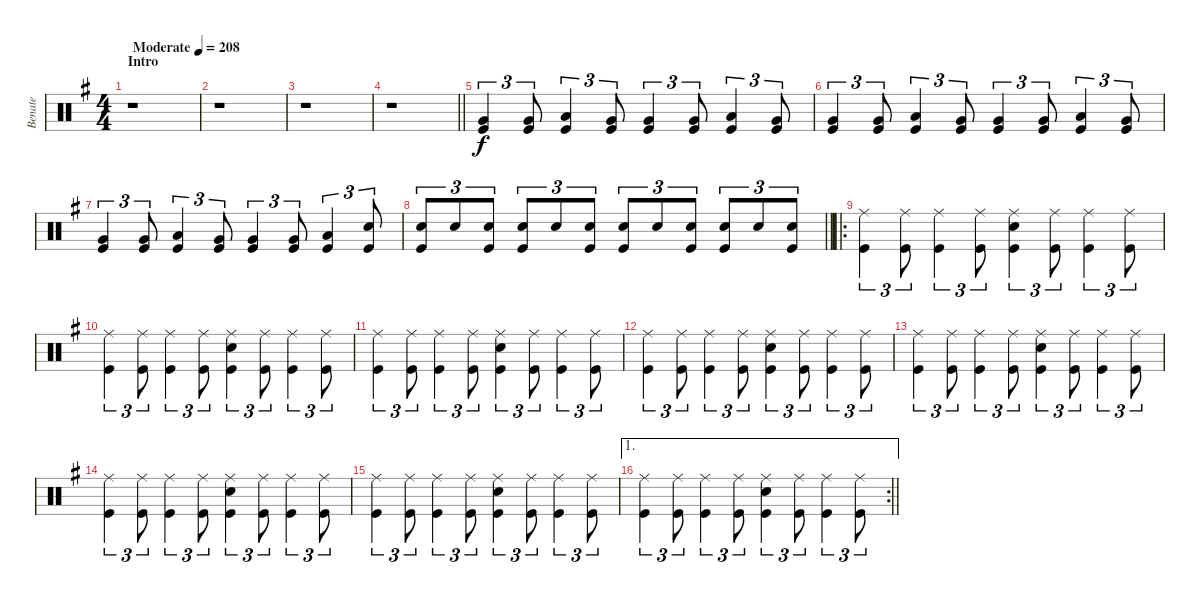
\track ("Benate" "Benate") {instrument percussion}
\staff {score}
\articulation defaults
\ts (4 4)
\section ("" "Intro")
\tempo (208 "Moderate")
\clef neutral
\ks g
r.1{dy f} |
r.1 |
r.1 |
\barLineRight lightlight
r.1 |
("Very Low Tom (hit)" "Kick (hit)").4{tu (3 2)} ("Very Low Tom (hit)" "Kick (hit)").8{tu (3 2)} ("Low Tom (hit)" "Kick (hit)").4{tu (3 2)} ("Very Low Tom (hit)" "Kick (hit)").8{tu (3 2)} ("Very Low Tom (hit)" "Kick (hit)").4{tu (3 2)} ("Very Low Tom (hit)" "Kick (hit)").8{tu (3 2)} ("Low Tom (hit)" "Kick (hit)").4{tu (3 2)} ("Very Low Tom (hit)" "Kick (hit)").8{tu (3 2)} |
("Very Low Tom (hit)" "Kick (hit)").4{tu (3 2)} ("Very Low Tom (hit)" "Kick (hit)").8{tu (3 2)} ("Low Tom (hit)" "Kick (hit)").4{tu (3 2)} ("Very Low Tom (hit)" "Kick (hit)").8{tu (3 2)} ("Very Low Tom (hit)" "Kick (hit)").4{tu (3 2)} ("Very Low Tom (hit)" "Kick (hit)").8{tu (3 2)} ("Low Tom (hit)" "Kick (hit)").4{tu (3 2)} ("Very Low Tom (hit)" "Kick (hit)").8{tu (3 2)} |
("Very Low Tom (hit)" "Kick (hit)").4{tu (3 2)} ("Very Low Tom (hit)" "Kick (hit)").8{tu (3 2)} ("Low Tom (hit)" "Kick (hit)").4{tu (3 2)} ("Very Low Tom (hit)" "Kick (hit)").8{tu (3 2)} ("Very Low Tom (hit)" "Kick (hit)").4{tu (3 2)} ("Very Low Tom (hit)" "Kick (hit)").8{tu (3 2)} ("Low Tom (hit)" "Kick (hit)").4{tu (3 2)} ("Snare (hit) 2" "Kick (hit)").8{tu (3 2)} |
\barLineRight lightlight
("Snare (hit) 2" "Kick (hit)").8{tu (3 2)} "Snare (hit) 2".8{tu (3 2)} ("Snare (hit) 2" "Kick (hit)").8{tu (3 2)} ("Snare (hit) 2" "Kick (hit)").8{tu (3 2)} "Snare (hit) 2".8{tu (3 2)} ("Snare (hit) 2" "Kick (hit)").8{tu (3 2)} ("Snare (hit) 2" "Kick (hit)").8{tu (3 2)} "Snare (hit) 2".8{tu (3 2)} ("Snare (hit) 2" "Kick (hit)").8{tu (3 2)} ("Snare (hit) 2" "Kick (hit)").8{tu (3 2)} "Snare (hit) 2".8{tu (3 2)} ("Snare (hit) 2" "Kick (hit)").8{tu (3 2)} |
\ro
("Ride (middle)" "Kick (hit)").4{tu (3 2)} ("Ride (middle)" "Kick (hit)").8{tu (3 2)} ("Ride (middle)" "Kick (hit)").4{tu (3 2)} ("Ride (middle)" "Kick (hit)").8{tu (3 2)} ("Ride (middle)" "Snare (hit) 2" "Kick (hit)").4{tu (3 2)} ("Ride (middle)" "Kick (hit)").8{tu (3 2)} ("Ride (middle)" "Kick (hit)").4{tu (3 2)} ("Ride (middle)" "Kick (hit)").8{tu (3 2)} |
("Ride (middle)" "Kick (hit)").4{tu (3 2)} ("Ride (middle)" "Kick (hit)").8{tu (3 2)} ("Ride (middle)" "Kick (hit)").4{tu (3 2)} ("Ride (middle)" "Kick (hit)").8{tu (3 2)} ("Ride (middle)" "Snare (hit) 2" "Kick (hit)").4{tu (3 2)} ("Ride (middle)" "Kick (hit)").8{tu (3 2)} ("Ride (middle)" "Kick (hit)").4{tu (3 2)} ("Ride (middle)" "Kick (hit)").8{tu (3 2)} |
("Ride (middle)" "Kick (hit)").4{tu (3 2)} ("Ride (middle)" "Kick (hit)").8{tu (3 2)} ("Ride (middle)" "Kick (hit)").4{tu (3 2)} ("Ride (middle)" "Kick (hit)").8{tu (3 2)} ("Ride (middle)" "Snare (hit) 2" "Kick (hit)").4{tu (3 2)} ("Ride (middle)" "Kick (hit)").8{tu (3 2)} ("Ride (middle)" "Kick (hit)").4{tu (3 2)} ("Ride (middle)" "Kick (hit)").8{tu (3 2)} |
("Ride (middle)" "Kick (hit)").4{tu (3 2)} ("Ride (middle)" "Kick (hit)").8{tu (3 2)} ("Ride (middle)" "Kick (hit)").4{tu (3 2)} ("Ride (middle)" "Kick (hit)").8{tu (3 2)} ("Ride (middle)" "Snare (hit) 2" "Kick (hit)").4{tu (3 2)} ("Ride (middle)" "Kick (hit)").8{tu (3 2)} ("Ride (middle)" "Kick (hit)").4{tu (3 2)} ("Ride (middle)" "Kick (hit)").8{tu (3 2)} |
("Ride (middle)" "Kick (hit)").4{tu (3 2)} ("Ride (middle)" "Kick (hit)").8{tu (3 2)} ("Ride (middle)" "Kick (hit)").4{tu (3 2)} ("Ride (middle)" "Kick (hit)").8{tu (3 2)} ("Ride (middle)" "Snare (hit) 2" "Kick (hit)").4{tu (3 2)} ("Ride (middle)" "Kick (hit)").8{tu (3 2)} ("Ride (middle)" "Kick (hit)").4{tu (3 2)} ("Ride (middle)" "Kick (hit)").8{tu (3 2)} |
("Ride (middle)" "Kick (hit)").4{tu (3 2)} ("Ride (middle)" "Kick (hit)").8{tu (3 2)} ("Ride (middle)" "Kick (hit)").4{tu (3 2)} ("Ride (middle)" "Kick (hit)").8{tu (3 2)} ("Ride (middle)" "Snare (hit) 2" "Kick (hit)").4{tu (3 2)} ("Ride (middle)" "Kick (hit)").8{tu (3 2)} ("Ride (middle)" "Kick (hit)").4{tu (3 2)} ("Ride (middle)" "Kick (hit)").8{tu (3 2)} |
("Ride (middle)" "Kick (hit)").4{tu (3 2)} ("Ride (middle)" "Kick (hit)").8{tu (3 2)} ("Ride (middle)" "Kick (hit)").4{tu (3 2)} ("Ride (middle)" "Kick (hit)").8{tu (3 2)} ("Ride (middle)" "Snare (hit) 2" "Kick (hit)").4{tu (3 2)} ("Ride (middle)" "Kick (hit)").8{tu (3 2)} ("Ride (middle)" "Kick (hit)").4{tu (3 2)} ("Ride (middle)" "Kick (hit)").8{tu (3 2)} |
\ae 1
\rc 2
\barLineRight lightlight
("Ride (middle)" "Kick (hit)").4{tu (3 2)} ("Ride (middle)" "Kick (hit)").8{tu (3 2)} ("Ride (middle)" "Kick (hit)").4{tu (3 2)} ("Ride (middle)" "Kick (hit)").8{tu (3 2)} ("Ride (middle)" "Snare (hit) 2" "Kick (hit)").4{tu (3 2)} ("Ride (middle)" "Kick (hit)").8{tu (3 2)} ("Ride (middle)" "Kick (hit)").4{tu (3 2)} ("Ride (middle)" "Kick (hit)").8{tu (3 2)}
